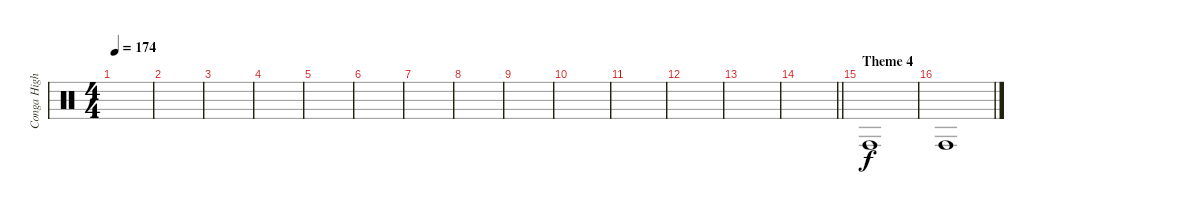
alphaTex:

\track ("Conga High" "Conga High") {instrument percussion}
\staff {score}
\articulation defaults
\ts (4 4)
\tempo 174
\clef neutral
\ks c
|
|
|
|
|
|
|
|
|
|
|
|
|
\barLineRight lightlight
|
\section ("" "Theme 4")
"Conga high (hit)".1{dy f} |
"Conga high (hit)".1
